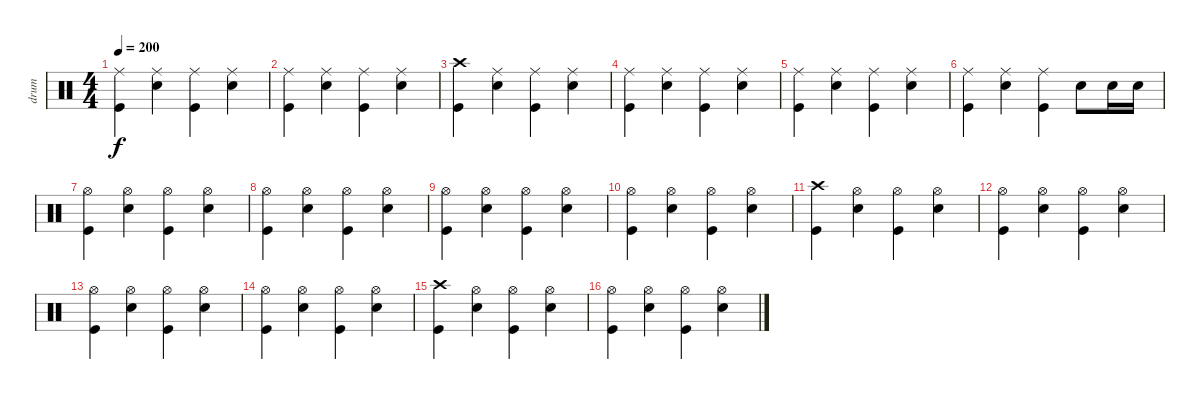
\track ("drum" "drum") {instrument percussion}
\staff {score}
\articulation defaults
\ts (4 4)
\tempo 200
\clef neutral
\ks c
("Ride (middle)" "Kick (hit)").4{dy f} ("Ride (middle)" "Snare (hit) 2").4 ("Ride (middle)" "Kick (hit)").4 ("Ride (middle)" "Snare (hit) 2").4 |
("Ride (middle)" "Kick (hit)").4 ("Ride (middle)" "Snare (hit) 2").4 ("Ride (middle)" "Kick (hit)").4 ("Ride (middle)" "Snare (hit) 2").4 |
("Crash high (hit)" "Kick (hit)").4 ("Ride (middle)" "Snare (hit) 2").4 ("Ride (middle)" "Kick (hit)").4 ("Ride (middle)" "Snare (hit) 2").4 |
("Ride (middle)" "Kick (hit)").4 ("Ride (middle)" "Snare (hit) 2").4 ("Ride (middle)" "Kick (hit)").4 ("Ride (middle)" "Snare (hit) 2").4 |
("Ride (middle)" "Kick (hit)").4 ("Ride (middle)" "Snare (hit) 2").4 ("Ride (middle)" "Kick (hit)").4 ("Ride (middle)" "Snare (hit) 2").4 |
("Ride (middle)" "Kick (hit)").4 ("Ride (middle)" "Snare (hit) 2").4 ("Ride (middle)" "Kick (hit)").4 "Snare (hit) 2".8 "Snare (hit) 2".16 "Snare (hit) 2".16 |
("Hi-Hat (open)" "Kick (hit)").4 ("Hi-Hat (open)" "Snare (hit) 2").4 ("Hi-Hat (open)" "Kick (hit)").4 ("Hi-Hat (open)" "Snare (hit) 2").4 |
("Hi-Hat (open)" "Kick (hit)").4 ("Hi-Hat (open)" "Snare (hit) 2").4 ("Hi-Hat (open)" "Kick (hit)").4 ("Hi-Hat (open)" "Snare (hit) 2").4 |
("Hi-Hat (open)" "Kick (hit)").4 ("Hi-Hat (open)" "Snare (hit) 2").4 ("Hi-Hat (open)" "Kick (hit)").4 ("Hi-Hat (open)" "Snare (hit) 2").4 |
("Hi-Hat (open)" "Kick (hit)").4 ("Hi-Hat (open)" "Snare (hit) 2").4 ("Hi-Hat (open)" "Kick (hit)").4 ("Hi-Hat (open)" "Snare (hit) 2").4 |
("Crash high (hit)" "Kick (hit)").4 ("Hi-Hat (open)" "Snare (hit) 2").4 ("Hi-Hat (open)" "Kick (hit)").4 ("Hi-Hat (open)" "Snare (hit) 2").4 |
("Hi-Hat (open)" "Kick (hit)").4 ("Hi-Hat (open)" "Snare (hit) 2").4 ("Hi-Hat (open)" "Kick (hit)").4 ("Hi-Hat (open)" "Snare (hit) 2").4 |
("Hi-Hat (open)" "Kick (hit)").4 ("Hi-Hat (open)" "Snare (hit) 2").4 ("Hi-Hat (open)" "Kick (hit)").4 ("Hi-Hat (open)" "Snare (hit) 2").4 |
("Hi-Hat (open)" "Kick (hit)").4 ("Hi-Hat (open)" "Snare (hit) 2").4 ("Hi-Hat (open)" "Kick (hit)").4 ("Hi-Hat (open)" "Snare (hit) 2").4 |
("Crash high (hit)" "Kick (hit)").4 ("Hi-Hat (open)" "Snare (hit) 2").4 ("Hi-Hat (open)" "Kick (hit)").4 ("Hi-Hat (open)" "Snare (hit) 2").4 |
("Hi-Hat (open)" "Kick (hit)").4 ("Hi-Hat (open)" "Snare (hit) 2").4 ("Hi-Hat (open)" "Kick (hit)").4 ("Hi-Hat (open)" "Snare (hit) 2").4
